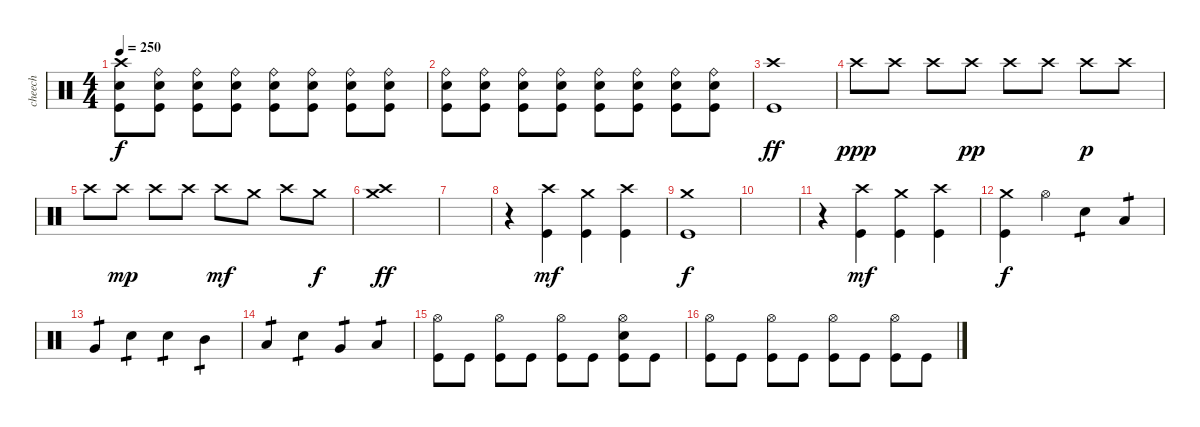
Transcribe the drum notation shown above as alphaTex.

\track ("cheech" "cheech") {instrument percussion}
\staff {score}
\articulation defaults
\ts (4 4)
\tempo 250
\clef neutral
\ks c
("Crash high (hit)" "Electric Snare (hit)" "Kick (hit)").8{dy f} ("Ride (bell)" "Electric Snare (hit)" "Kick (hit)").8 ("Ride (bell)" "Electric Snare (hit)" "Kick (hit)").8 ("Ride (bell)" "Electric Snare (hit)" "Kick (hit)").8 ("Ride (bell)" "Electric Snare (hit)" "Kick (hit)").8 ("Ride (bell)" "Electric Snare (hit)" "Kick (hit)").8 ("Ride (bell)" "Electric Snare (hit)" "Kick (hit)").8 ("Ride (bell)" "Electric Snare (hit)" "Kick (hit)").8 |
("Ride (bell)" "Electric Snare (hit)" "Kick (hit)").8 ("Ride (bell)" "Electric Snare (hit)" "Kick (hit)").8 ("Ride (bell)" "Electric Snare (hit)" "Kick (hit)").8 ("Ride (bell)" "Electric Snare (hit)" "Kick (hit)").8 ("Ride (bell)" "Electric Snare (hit)" "Kick (hit)").8 ("Ride (bell)" "Electric Snare (hit)" "Kick (hit)").8 ("Ride (bell)" "Electric Snare (hit)" "Kick (hit)").8 ("Ride (bell)" "Electric Snare (hit)" "Kick (hit)").8 |
("Crash high (hit)" "Kick (hit)").1{dy ff} |
"Crash high (hit)".8{dy ppp} "Crash high (hit)".8 "Crash high (hit)".8 "Crash high (hit)".8{dy pp} "Crash high (hit)".8 "Crash high (hit)".8 "Crash high (hit)".8{dy p} "Crash high (hit)".8 |
"Crash high (hit)".8 "Crash high (hit)".8{dy mp} "Crash high (hit)".8 "Crash high (hit)".8 "Crash high (hit)".8{dy mf} "Crash medium (hit)".8 "Crash high (hit)".8 "Crash medium (hit)".8{dy f} |
("Crash high (hit)" "Crash medium (hit)").1{dy ff} |
|
r.4 ("Crash high (hit)" "Kick (hit)").4{dy mf} ("Crash medium (hit)" "Kick (hit)").4 ("Crash high (hit)" "Kick (hit)").4 |
("Crash medium (hit)" "Kick (hit)").1{dy f} |
|
r.4 ("Crash high (hit)" "Kick (hit)").4{dy mf} ("Crash medium (hit)" "Kick (hit)").4 ("Crash high (hit)" "Kick (hit)").4 |
("Crash medium (hit)" "Kick (hit)").4{dy f} "Hi-Hat (open)".4 "Electric Snare (hit)".4{tp 1} "Low Tom (hit)".4{tp 1} |
"Very Low Tom (hit)".4{tp 1} "Electric Snare (hit)".4{tp 1} "Electric Snare (hit)".4{tp 1} "Mid Tom (hit)".4{tp 1} |
"Low Tom (hit)".4{tp 1} "Electric Snare (hit)".4{tp 1} "Very Low Tom (hit)".4{tp 1} "Low Floor Tom (hit)".4{tp 1} |
("Hi-Hat (open)" "Kick (hit)").8 "Kick (hit)".8 ("Hi-Hat (open)" "Kick (hit)").8 "Kick (hit)".8 ("Hi-Hat (open)" "Kick (hit)").8 "Kick (hit)".8 ("Hi-Hat (open)" "Electric Snare (hit)" "Kick (hit)").8 "Kick (hit)".8 |
("Hi-Hat (open)" "Kick (hit)").8 "Kick (hit)".8 ("Hi-Hat (open)" "Kick (hit)").8 "Kick (hit)".8 ("Hi-Hat (open)" "Kick (hit)").8 "Kick (hit)".8 ("Hi-Hat (open)" "Kick (hit)").8 "Kick (hit)".8
